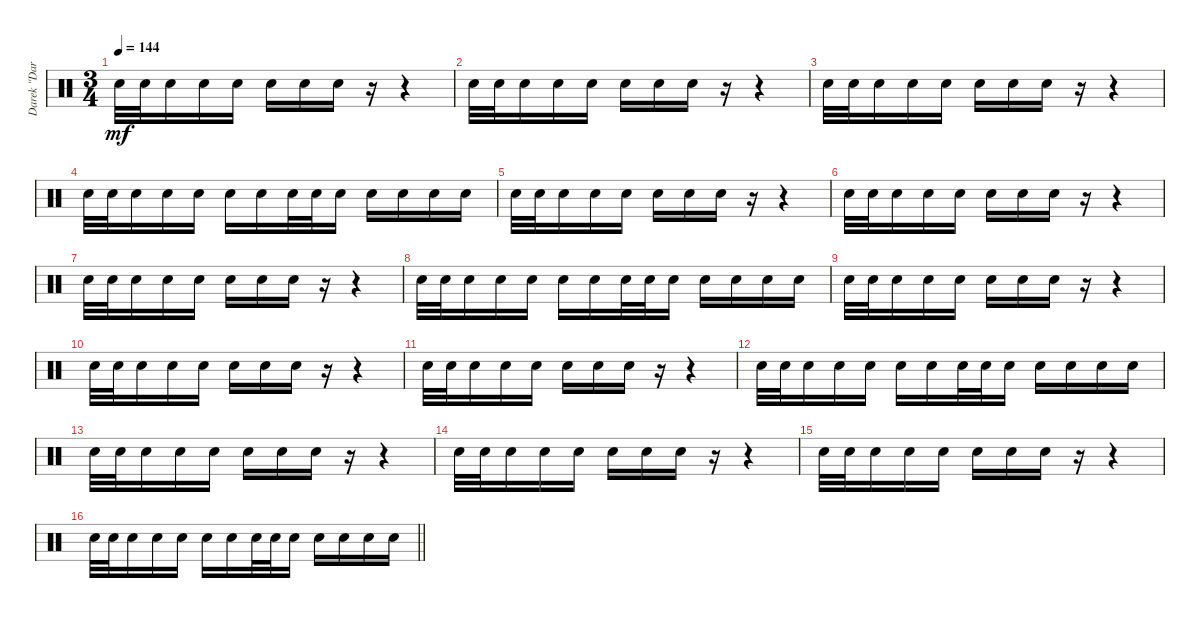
\track ("Darek \"Daray\" Brzozowski " "Darek \"Dar") {instrument percussion}
\staff {score}
\articulation defaults
\ts (3 4)
\tempo 144
\clef neutral
\ks c "Electric Snare (hit)".32{dy mf} "Electric Snare (hit)".32 "Electric Snare (hit)".16 "Electric Snare (hit)".16 "Electric Snare (hit)".16 "Electric Snare (hit)".16 "Electric Snare (hit)".16 "Electric Snare (hit)".16
r.16 r.4 |
"Electric Snare (hit)".32 "Electric Snare (hit)".32 "Electric Snare (hit)".16 "Electric Snare (hit)".16 "Electric Snare (hit)".16 "Electric Snare (hit)".16 "Electric Snare (hit)".16 "Electric Snare (hit)".16 r.16 r.4 |
"Electric Snare (hit)".32 "Electric Snare (hit)".32 "Electric Snare (hit)".16 "Electric Snare (hit)".16 "Electric Snare (hit)".16 "Electric Snare (hit)".16 "Electric Snare (hit)".16 "Electric Snare (hit)".16 r.16 r.4 |
"Electric Snare (hit)".32 "Electric Snare (hit)".32 "Electric Snare (hit)".16 "Electric Snare (hit)".16 "Electric Snare (hit)".16 "Electric Snare (hit)".16 "Electric Snare (hit)".16 "Electric Snare (hit)".32 "Electric Snare (hit)".32 "Electric Snare (hit)".16 "Electric Snare (hit)".16 "Electric Snare (hit)".16 "Electric Snare (hit)".16 "Electric Snare (hit)".16 |
"Electric Snare (hit)".32 "Electric Snare (hit)".32 "Electric Snare (hit)".16 "Electric Snare (hit)".16 "Electric Snare (hit)".16 "Electric Snare (hit)".16 "Electric Snare (hit)".16 "Electric Snare (hit)".16 r.16 r.4 |
"Electric Snare (hit)".32 "Electric Snare (hit)".32 "Electric Snare (hit)".16 "Electric Snare (hit)".16 "Electric Snare (hit)".16 "Electric Snare (hit)".16 "Electric Snare (hit)".16 "Electric Snare (hit)".16 r.16 r.4 |
"Electric Snare (hit)".32 "Electric Snare (hit)".32 "Electric Snare (hit)".16 "Electric Snare (hit)".16 "Electric Snare (hit)".16 "Electric Snare (hit)".16 "Electric Snare (hit)".16 "Electric Snare (hit)".16 r.16 r.4 |
"Electric Snare (hit)".32 "Electric Snare (hit)".32 "Electric Snare (hit)".16 "Electric Snare (hit)".16 "Electric Snare (hit)".16 "Electric Snare (hit)".16 "Electric Snare (hit)".16 "Electric Snare (hit)".32 "Electric Snare (hit)".32 "Electric Snare (hit)".16 "Electric Snare (hit)".16 "Electric Snare (hit)".16 "Electric Snare (hit)".16 "Electric Snare (hit)".16 |
"Electric Snare (hit)".32 "Electric Snare (hit)".32 "Electric Snare (hit)".16 "Electric Snare (hit)".16 "Electric Snare (hit)".16 "Electric Snare (hit)".16 "Electric Snare (hit)".16 "Electric Snare (hit)".16 r.16 r.4 |
"Electric Snare (hit)".32 "Electric Snare (hit)".32 "Electric Snare (hit)".16 "Electric Snare (hit)".16 "Electric Snare (hit)".16 "Electric Snare (hit)".16 "Electric Snare (hit)".16 "Electric Snare (hit)".16 r.16 r.4 |
"Electric Snare (hit)".32 "Electric Snare (hit)".32 "Electric Snare (hit)".16 "Electric Snare (hit)".16 "Electric Snare (hit)".16 "Electric Snare (hit)".16 "Electric Snare (hit)".16 "Electric Snare (hit)".16 r.16 r.4 |
"Electric Snare (hit)".32 "Electric Snare (hit)".32 "Electric Snare (hit)".16 "Electric Snare (hit)".16 "Electric Snare (hit)".16 "Electric Snare (hit)".16 "Electric Snare (hit)".16 "Electric Snare (hit)".32 "Electric Snare (hit)".32 "Electric Snare (hit)".16 "Electric Snare (hit)".16 "Electric Snare (hit)".16 "Electric Snare (hit)".16 "Electric Snare (hit)".16 |
"Electric Snare (hit)".32 "Electric Snare (hit)".32 "Electric Snare (hit)".16 "Electric Snare (hit)".16 "Electric Snare (hit)".16 "Electric Snare (hit)".16 "Electric Snare (hit)".16 "Electric Snare (hit)".16 r.16 r.4 |
"Electric Snare (hit)".32 "Electric Snare (hit)".32 "Electric Snare (hit)".16 "Electric Snare (hit)".16 "Electric Snare (hit)".16 "Electric Snare (hit)".16 "Electric Snare (hit)".16 "Electric Snare (hit)".16 r.16 r.4 |
"Electric Snare (hit)".32 "Electric Snare (hit)".32 "Electric Snare (hit)".16 "Electric Snare (hit)".16 "Electric Snare (hit)".16 "Electric Snare (hit)".16 "Electric Snare (hit)".16 "Electric Snare (hit)".16 r.16 r.4 |
\barLineRight lightlight "Electric Snare (hit)".32 "Electric Snare (hit)".32 "Electric Snare (hit)".16 "Electric Snare (hit)".16 "Electric Snare (hit)".16 "Electric Snare (hit)".16 "Electric Snare (hit)".16 "Electric Snare (hit)".32 "Electric Snare (hit)".32 "Electric Snare (hit)".16 "Electric Snare (hit)".16 "Electric Snare (hit)".16 "Electric Snare (hit)".16 "Electric Snare (hit)".16
